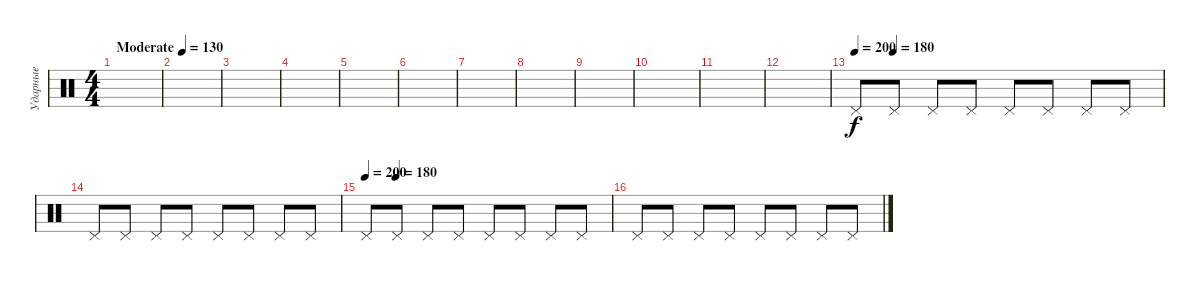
\track ("Ударные" "Ударные") {instrument percussion}
\staff {score}
\articulation defaults
\ts (4 4)
\tempo (130 "Moderate")
\clef neutral
\ks c
|
|
|
|
|
|
|
|
|
|
|
|
\tempo 200
\tempo (180 0.125)
"Pedal Hi-Hat (hit)".8 "Pedal Hi-Hat (hit)".8 "Pedal Hi-Hat (hit)".8 "Pedal Hi-Hat (hit)".8 "Pedal Hi-Hat (hit)".8 "Pedal Hi-Hat (hit)".8 "Pedal Hi-Hat (hit)".8 "Pedal Hi-Hat (hit)".8 |
"Pedal Hi-Hat (hit)".8 "Pedal Hi-Hat (hit)".8 "Pedal Hi-Hat (hit)".8 "Pedal Hi-Hat (hit)".8 "Pedal Hi-Hat (hit)".8 "Pedal Hi-Hat (hit)".8 "Pedal Hi-Hat (hit)".8 "Pedal Hi-Hat (hit)".8 |
\tempo 200
\tempo (180 0.125)
"Pedal Hi-Hat (hit)".8 "Pedal Hi-Hat (hit)".8 "Pedal Hi-Hat (hit)".8 "Pedal Hi-Hat (hit)".8 "Pedal Hi-Hat (hit)".8 "Pedal Hi-Hat (hit)".8 "Pedal Hi-Hat (hit)".8 "Pedal Hi-Hat (hit)".8 |
"Pedal Hi-Hat (hit)".8 "Pedal Hi-Hat (hit)".8 "Pedal Hi-Hat (hit)".8 "Pedal Hi-Hat (hit)".8 "Pedal Hi-Hat (hit)".8 "Pedal Hi-Hat (hit)".8 "Pedal Hi-Hat (hit)".8 "Pedal Hi-Hat (hit)".8
